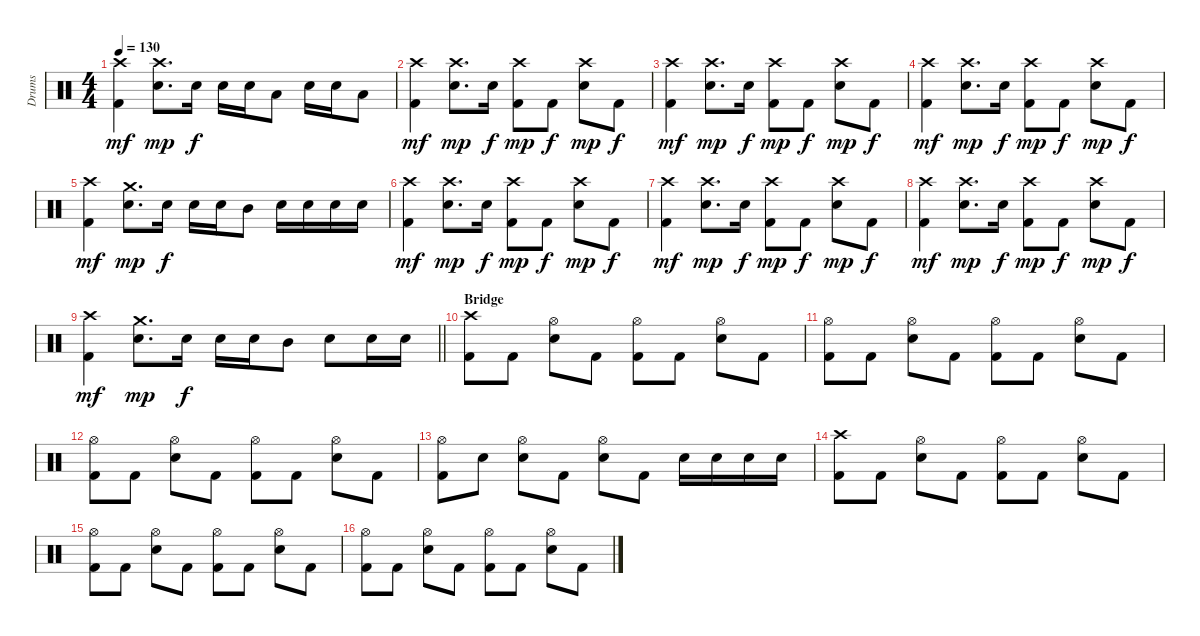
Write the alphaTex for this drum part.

\track ("Drums" "Drums") {instrument percussion}
\staff {score}
\articulation defaults
\ts (4 4)
\tempo 130
\clef neutral
\ks c
("Crash high (hit)" "Kick (hit) 2").4{dy mf} ("Crash high (hit)" "Snare (hit) 2").8{d dy mp} "Snare (hit) 2".16{dy f} "Snare (hit) 2".16 "Snare (hit) 2".16 "Low Tom (hit)".8 "Snare (hit) 2".16 "Snare (hit) 2".16 "Low Tom (hit)".8 |
("Crash high (hit)" "Kick (hit) 2").4{dy mf} ("Crash high (hit)" "Snare (hit) 2").8{d dy mp} "Snare (hit) 2".16{dy f} ("Crash high (hit)" "Kick (hit) 2").8{dy mp} "Kick (hit) 2".8{dy f} ("Crash high (hit)" "Snare (hit) 2").8{dy mp} "Kick (hit) 2".8{dy f} |
("Crash high (hit)" "Kick (hit) 2").4{dy mf} ("Crash high (hit)" "Snare (hit) 2").8{d dy mp} "Snare (hit) 2".16{dy f} ("Crash high (hit)" "Kick (hit) 2").8{dy mp} "Kick (hit) 2".8{dy f} ("Crash high (hit)" "Snare (hit) 2").8{dy mp} "Kick (hit) 2".8{dy f} |
("Crash high (hit)" "Kick (hit) 2").4{dy mf} ("Crash high (hit)" "Snare (hit) 2").8{d dy mp} "Snare (hit) 2".16{dy f} ("Crash high (hit)" "Kick (hit) 2").8{dy mp} "Kick (hit) 2".8{dy f} ("Crash high (hit)" "Snare (hit) 2").8{dy mp} "Kick (hit) 2".8{dy f} |
("Crash high (hit)" "Kick (hit) 2").4{dy mf} ("Crash medium (hit)" "Snare (hit) 2").8{d dy mp} "Snare (hit) 2".16{dy f} "Snare (hit) 2".16 "Snare (hit) 2".16 "Mid Tom (hit)".8 "Snare (hit) 2".16 "Snare (hit) 2".16 "Snare (hit) 2".16 "Snare (hit) 2".16 |
("Crash high (hit)" "Kick (hit) 2").4{dy mf} ("Crash high (hit)" "Snare (hit) 2").8{d dy mp} "Snare (hit) 2".16{dy f} ("Crash high (hit)" "Kick (hit) 2").8{dy mp} "Kick (hit) 2".8{dy f} ("Crash high (hit)" "Snare (hit) 2").8{dy mp} "Kick (hit) 2".8{dy f} |
("Crash high (hit)" "Kick (hit) 2").4{dy mf} ("Crash high (hit)" "Snare (hit) 2").8{d dy mp} "Snare (hit) 2".16{dy f} ("Crash high (hit)" "Kick (hit) 2").8{dy mp} "Kick (hit) 2".8{dy f} ("Crash high (hit)" "Snare (hit) 2").8{dy mp} "Kick (hit) 2".8{dy f} |
("Crash high (hit)" "Kick (hit) 2").4{dy mf} ("Crash high (hit)" "Snare (hit) 2").8{d dy mp} "Snare (hit) 2".16{dy f} ("Crash high (hit)" "Kick (hit) 2").8{dy mp} "Kick (hit) 2".8{dy f} ("Crash high (hit)" "Snare (hit) 2").8{dy mp} "Kick (hit) 2".8{dy f} |
\barLineRight lightlight
("Crash high (hit)" "Kick (hit) 2").4{dy mf} ("Crash medium (hit)" "Snare (hit) 2").8{d dy mp} "Snare (hit) 2".16{dy f} "Snare (hit) 2".16 "Snare (hit) 2".16 "Mid Tom (hit)".8 "Snare (hit) 2".8 "Snare (hit) 2".16 "Snare (hit) 2".16 |
\section ("" "Bridge")
("Crash high (hit)" "Kick (hit) 2").8 "Kick (hit) 2".8 ("Hi-Hat (open)" "Snare (hit) 2").8 "Kick (hit) 2".8 ("Hi-Hat (open)" "Kick (hit) 2").8 "Kick (hit) 2".8 ("Hi-Hat (open)" "Snare (hit) 2").8 "Kick (hit) 2".8 |
("Hi-Hat (open)" "Kick (hit) 2").8 "Kick (hit) 2".8 ("Hi-Hat (open)" "Snare (hit) 2").8 "Kick (hit) 2".8 ("Hi-Hat (open)" "Kick (hit) 2").8 "Kick (hit) 2".8 ("Hi-Hat (open)" "Snare (hit) 2").8 "Kick (hit) 2".8 |
("Hi-Hat (open)" "Kick (hit) 2").8 "Kick (hit) 2".8 ("Hi-Hat (open)" "Snare (hit) 2").8 "Kick (hit) 2".8 ("Hi-Hat (open)" "Kick (hit) 2").8 "Kick (hit) 2".8 ("Hi-Hat (open)" "Snare (hit) 2").8 "Kick (hit) 2".8 |
("Hi-Hat (open)" "Kick (hit) 2").8 "Snare (hit) 2".8 ("Hi-Hat (open)" "Snare (hit) 2").8 "Kick (hit) 2".8 ("Hi-Hat (open)" "Snare (hit) 2").8 "Kick (hit) 2".8 "Snare (hit) 2".16 "Snare (hit) 2".16 "Snare (hit) 2".16 "Snare (hit) 2".16 |
("Crash high (hit)" "Kick (hit) 2").8 "Kick (hit) 2".8 ("Hi-Hat (open)" "Snare (hit) 2").8 "Kick (hit) 2".8 ("Hi-Hat (open)" "Kick (hit) 2").8 "Kick (hit) 2".8 ("Hi-Hat (open)" "Snare (hit) 2").8 "Kick (hit) 2".8 |
("Hi-Hat (open)" "Kick (hit) 2").8 "Kick (hit) 2".8 ("Hi-Hat (open)" "Snare (hit) 2").8 "Kick (hit) 2".8 ("Hi-Hat (open)" "Kick (hit) 2").8 "Kick (hit) 2".8 ("Hi-Hat (open)" "Snare (hit) 2").8 "Kick (hit) 2".8 |
("Hi-Hat (open)" "Kick (hit) 2").8 "Kick (hit) 2".8 ("Hi-Hat (open)" "Snare (hit) 2").8 "Kick (hit) 2".8 ("Hi-Hat (open)" "Kick (hit) 2").8 "Kick (hit) 2".8 ("Hi-Hat (open)" "Snare (hit) 2").8 "Kick (hit) 2".8
